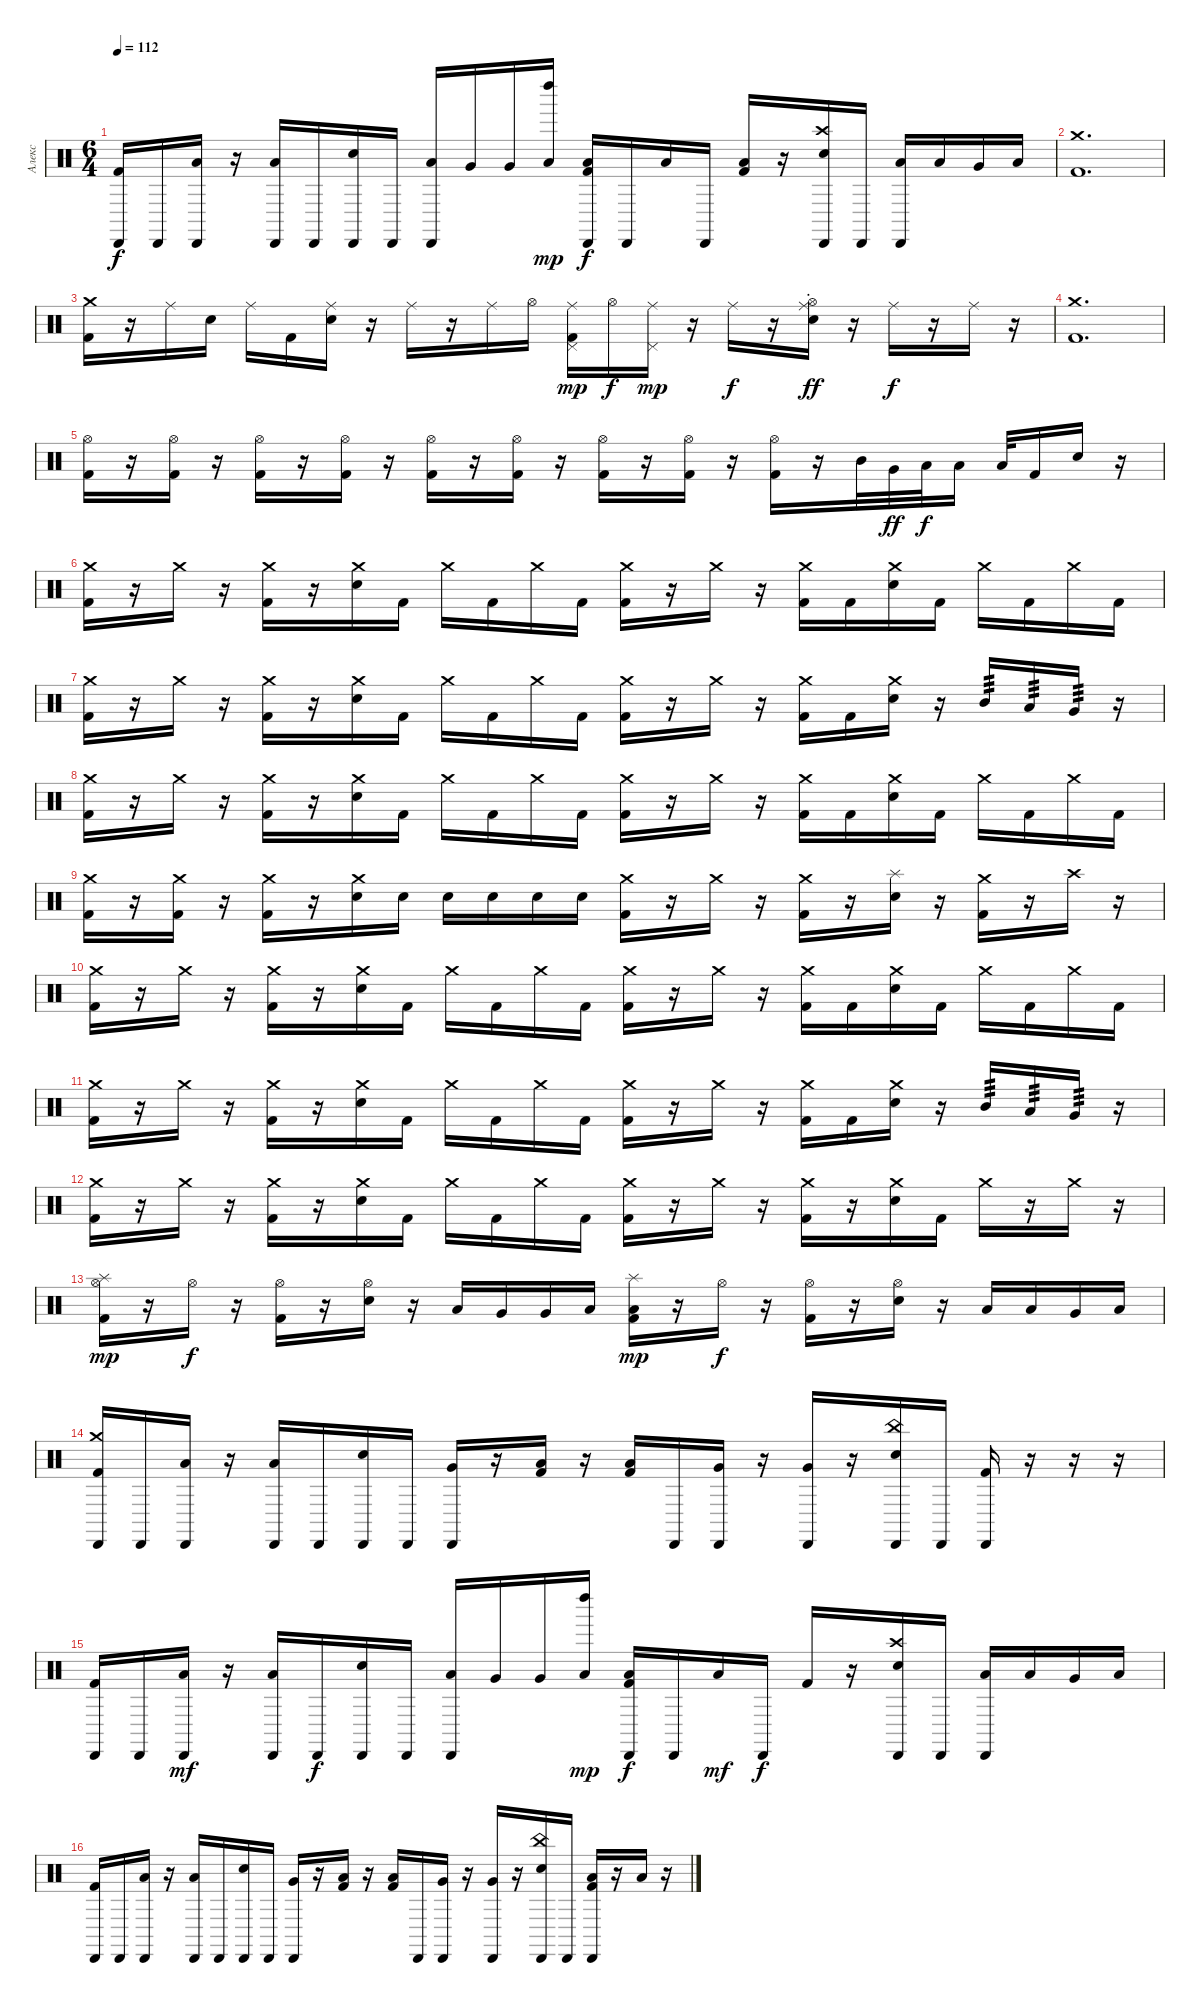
\track ("Алекс" "Алекс") {instrument percussion}
\staff {score}
\articulation defaults
\ts (6 4)
\tempo 112
\clef neutral
\ks c
("Cabasa (hit)" "Kick (hit) 2").16{dy f balance 8} "Cabasa (hit)".16 ("Low Floor Tom (hit)" "Cabasa (hit)").16 r.16 ("Low Floor Tom (hit)" "Cabasa (hit)").16 "Cabasa (hit)".16 ("Electric Snare (hit)" "Cabasa (hit)").16 "Cabasa (hit)".16 ("Low Tom (hit)" "Cabasa (hit)").16{balance 12} "Very Low Tom (hit)".16{balance 8} "Very Low Tom (hit)".16{balance 11} ("Low Floor Tom (hit)" "Left Maraca (hit)").16{dy mp balance 5} ("Low Floor Tom (hit)" "Cabasa (hit)" "Kick (hit) 2").16{dy f balance 5} "Cabasa (hit)".16{balance 8} "Low Floor Tom (hit)".16 "Cabasa (hit)".16 ("Low Floor Tom (hit)" "Kick (hit) 2").16 r.16 ("Crash high (hit)" "Electric Snare (hit)" "Cabasa (hit)").16 "Cabasa (hit)".16{balance 4} ("Low Tom (hit)" "Cabasa (hit)").16{balance 4} "Low Tom (hit)".16{balance 11} "Very Low Tom (hit)".16{balance 4} "Low Floor Tom (hit)".16{balance 5} |
("Crash medium (hit)" "Kick (hit) 2").1{d} |
("Crash medium (hit)" "Kick (hit) 2").16 r.16 "Ride (middle)".16 "Electric Snare (hit)".16 "Ride (middle)".16 "Kick (hit) 2".16 ("Ride (middle)" "Electric Snare (hit)").16 r.16 "Ride (middle)".16 r.16 "Ride (middle)".16 "Hi-Hat (open)".16 ("Ride (middle)" "Pedal Hi-Hat (hit)" "Kick (hit) 2").16{dy mp} "Hi-Hat (open)".16{dy f} ("Ride (middle)" "Pedal Hi-Hat (hit)").16{dy mp} r.16 "Ride (middle)".16{dy f} r.16 ("Ride (middle)" "Electric Snare (hit)" "Hi-Hat (open)"{st}).16{dy ff} r.16 "Ride (middle)".16{dy f} r.16 "Ride (middle)".16 r.16 |
("Crash medium (hit)" "Kick (hit) 2").1{d} |
("Hi-Hat (open)" "Kick (hit) 2").16{volume 1} r.16 ("Hi-Hat (open)" "Kick (hit) 2").16{volume 9} r.16 ("Hi-Hat (open)" "Kick (hit) 2").16 r.16 ("Hi-Hat (open)" "Kick (hit) 2").16 r.16 ("Hi-Hat (open)" "Kick (hit) 2").16 r.16 ("Hi-Hat (open)" "Kick (hit) 2").16 r.16 ("Hi-Hat (open)" "Kick (hit) 2").16 r.16 ("Hi-Hat (open)" "Kick (hit) 2").16 r.16 ("Hi-Hat (open)" "Kick (hit) 2").16 r.16 "Mid Tom (hit)".32 "Very Low Tom (hit)".32{dy ff} "Low Tom (hit)".32{dy f} "Low Floor Tom (hit)".16 "Low Floor Tom (hit)".32 "Kick (hit) 2".16 "Electric Snare (hit)".16 r.16 |
("Crash medium (hit)" "Kick (hit) 2").16 r.16 "Crash medium (hit)".16 r.16 ("Crash medium (hit)" "Kick (hit) 2").16 r.16 ("Crash medium (hit)" "Electric Snare (hit)").16 "Kick (hit) 2".16 "Crash medium (hit)".16 "Kick (hit) 2".16 "Crash medium (hit)".16 "Kick (hit) 2".16 ("Crash medium (hit)" "Kick (hit) 2").16 r.16 "Crash medium (hit)".16 r.16 ("Crash medium (hit)" "Kick (hit) 2").16 "Kick (hit) 2".16 ("Crash medium (hit)" "Electric Snare (hit)").16 "Kick (hit) 2".16 "Crash medium (hit)".16 "Kick (hit) 2".16 "Crash medium (hit)".16 "Kick (hit) 2".16 |
("Crash medium (hit)" "Kick (hit) 2").16 r.16 "Crash medium (hit)".16 r.16 ("Crash medium (hit)" "Kick (hit) 2").16 r.16 ("Crash medium (hit)" "Electric Snare (hit)").16 "Kick (hit) 2".16 "Crash medium (hit)".16 "Kick (hit) 2".16 "Crash medium (hit)".16 "Kick (hit) 2".16 ("Crash medium (hit)" "Kick (hit) 2").16 r.16 "Crash medium (hit)".16 r.16 ("Crash medium (hit)" "Kick (hit) 2").16 "Kick (hit) 2".16 ("Crash medium (hit)" "Electric Snare (hit)").16 r.16 "Mid Tom (hit)".16{tp 3} "Low Tom (hit)".16{tp 3} "Very Low Tom (hit)".16{tp 3} r.16 |
("Crash medium (hit)" "Kick (hit) 2").16 r.16 "Crash medium (hit)".16 r.16 ("Crash medium (hit)" "Kick (hit) 2").16 r.16 ("Crash medium (hit)" "Electric Snare (hit)").16 "Kick (hit) 2".16 "Crash medium (hit)".16 "Kick (hit) 2".16 "Crash medium (hit)".16 "Kick (hit) 2".16 ("Crash medium (hit)" "Kick (hit) 2").16 r.16 "Crash medium (hit)".16 r.16 ("Crash medium (hit)" "Kick (hit) 2").16 "Kick (hit) 2".16 ("Crash medium (hit)" "Electric Snare (hit)").16 "Kick (hit) 2".16 "Crash medium (hit)".16 "Kick (hit) 2".16 "Crash medium (hit)".16 "Kick (hit) 2".16 |
("Crash medium (hit)" "Kick (hit) 2").16 r.16 ("Crash medium (hit)" "Kick (hit) 2").16 r.16 ("Crash medium (hit)" "Kick (hit) 2").16 r.16 ("Crash medium (hit)" "Electric Snare (hit)").16 "Electric Snare (hit)".16 "Electric Snare (hit)".16 "Electric Snare (hit)".16 "Electric Snare (hit)".16 "Electric Snare (hit)".16 ("Crash medium (hit)" "Kick (hit) 2").16 r.16 "Crash medium (hit)".16 r.16 ("Crash medium (hit)" "Kick (hit) 2").16 r.16 ("Splash (hit)" "Electric Snare (hit)").16 r.16 ("Crash medium (hit)" "Kick (hit) 2").16 r.16 "Crash high (hit)".16 r.16 |
("Crash medium (hit)" "Kick (hit) 2").16 r.16 "Crash medium (hit)".16 r.16 ("Crash medium (hit)" "Kick (hit) 2").16 r.16 ("Crash medium (hit)" "Electric Snare (hit)").16 "Kick (hit) 2".16 "Crash medium (hit)".16 "Kick (hit) 2".16 "Crash medium (hit)".16 "Kick (hit) 2".16 ("Crash medium (hit)" "Kick (hit) 2").16 r.16 "Crash medium (hit)".16 r.16 ("Crash medium (hit)" "Kick (hit) 2").16 "Kick (hit) 2".16 ("Crash medium (hit)" "Electric Snare (hit)").16 "Kick (hit) 2".16 "Crash medium (hit)".16 "Kick (hit) 2".16 "Crash medium (hit)".16 "Kick (hit) 2".16 |
("Crash medium (hit)" "Kick (hit) 2").16 r.16 "Crash medium (hit)".16 r.16 ("Crash medium (hit)" "Kick (hit) 2").16 r.16 ("Crash medium (hit)" "Electric Snare (hit)").16 "Kick (hit) 2".16 "Crash medium (hit)".16 "Kick (hit) 2".16 "Crash medium (hit)".16 "Kick (hit) 2".16 ("Crash medium (hit)" "Kick (hit) 2").16 r.16 "Crash medium (hit)".16 r.16 ("Crash medium (hit)" "Kick (hit) 2").16 "Kick (hit) 2".16 ("Crash medium (hit)" "Electric Snare (hit)").16 r.16 "Mid Tom (hit)".16{tp 3} "Low Tom (hit)".16{tp 3} "Very Low Tom (hit)".16{tp 3} r.16 |
("Crash medium (hit)" "Kick (hit) 2").16 r.16 "Crash medium (hit)".16 r.16 ("Crash medium (hit)" "Kick (hit) 2").16 r.16 ("Crash medium (hit)" "Electric Snare (hit)").16 "Kick (hit) 2".16 "Crash medium (hit)".16 "Kick (hit) 2".16 "Crash medium (hit)".16 "Kick (hit) 2".16 ("Crash medium (hit)" "Kick (hit) 2").16 r.16 "Crash medium (hit)".16 r.16 ("Crash medium (hit)" "Kick (hit) 2").16 r.16 ("Crash medium (hit)" "Electric Snare (hit)").16 "Kick (hit) 2".16 "Crash medium (hit)".16 r.16 "Crash medium (hit)".16 r.16 |
("Hi-Hat (open)" "Splash (hit)" "Kick (hit) 2").16{dy mp balance 8} r.16 "Hi-Hat (open)".16{dy f} r.16 ("Hi-Hat (open)" "Kick (hit) 2").16 r.16 ("Hi-Hat (open)" "Electric Snare (hit)").16 r.16 "Low Tom (hit)".16{balance 12} "Very Low Tom (hit)".16{balance 8} "Very Low Tom (hit)".16{balance 11} "Low Floor Tom (hit)".16{balance 5} ("Splash (hit)" "Low Floor Tom (hit)" "Kick (hit) 2").16{dy mp balance 5} r.16{balance 8} "Hi-Hat (open)".16{dy f} r.16 ("Hi-Hat (open)" "Kick (hit) 2").16 r.16 ("Hi-Hat (open)" "Electric Snare (hit)").16 r.16{balance 4} "Low Tom (hit)".16{balance 4} "Low Tom (hit)".16{balance 11} "Very Low Tom (hit)".16{balance 4} "Low Floor Tom (hit)".16{balance 5} |
("Crash medium (hit)" "Cabasa (hit)" "Kick (hit) 2").16{balance 8} "Cabasa (hit)".16 ("Low Floor Tom (hit)" "Cabasa (hit)").16{balance 5} r.16 ("Low Floor Tom (hit)" "Cabasa (hit)").16{balance 5} "Cabasa (hit)".16 ("Electric Snare (hit)" "Cabasa (hit)").16 "Cabasa (hit)".16 ("Very Low Tom (hit)" "Cabasa (hit)").16{balance 11} r.16 ("Low Floor Tom (hit)" "Kick (hit) 2").16{balance 5} r.16 ("Low Floor Tom (hit)" "Kick (hit) 2").16{balance 5} "Cabasa (hit)".16 ("Very Low Tom (hit)" "Cabasa (hit)").16{balance 9} r.16 ("Very Low Tom (hit)" "Cabasa (hit)").16{balance 9} r.16 ("China (hit)" "Electric Snare (hit)" "Cabasa (hit)").16 "Cabasa (hit)".16 ("Cabasa (hit)" "Kick (hit) 2").16 r.16 r.16 r.16 |
("Cabasa (hit)" "Kick (hit) 2").16{balance 8} "Cabasa (hit)".16 ("Low Floor Tom (hit)" "Cabasa (hit)").16{dy mf} r.16 ("Low Floor Tom (hit)" "Cabasa (hit)").16 "Cabasa (hit)".16{dy f} ("Electric Snare (hit)" "Cabasa (hit)").16 "Cabasa (hit)".16 ("Low Tom (hit)" "Cabasa (hit)").16{balance 12} "Very Low Tom (hit)".16{balance 8} "Very Low Tom (hit)".16{balance 11} ("Low Floor Tom (hit)" "Left Maraca (hit)").16{dy mp balance 5} ("Low Floor Tom (hit)" "Cabasa (hit)" "Kick (hit) 2").16{dy f balance 5} "Cabasa (hit)".16{balance 8} "Low Floor Tom (hit)".16{dy mf balance 8} "Cabasa (hit)".16{dy f} "Kick (hit) 2".16 r.16 ("Crash high (hit)" "Electric Snare (hit)" "Cabasa (hit)").16 "Cabasa (hit)".16{balance 4} ("Low Tom (hit)" "Cabasa (hit)").16{balance 4} "Low Tom (hit)".16{balance 11} "Very Low Tom (hit)".16{balance 4} "Low Floor Tom (hit)".16{balance 5} |
("Cabasa (hit)" "Kick (hit) 2").16{balance 8} "Cabasa (hit)".16 ("Low Floor Tom (hit)" "Cabasa (hit)").16{balance 5} r.16 ("Low Floor Tom (hit)" "Cabasa (hit)").16{balance 5} "Cabasa (hit)".16 ("Electric Snare (hit)" "Cabasa (hit)").16 "Cabasa (hit)".16 ("Very Low Tom (hit)" "Cabasa (hit)").16{balance 11} r.16 ("Low Floor Tom (hit)" "Kick (hit) 2").16{balance 5} r.16 ("Low Floor Tom (hit)" "Kick (hit) 2").16{balance 5} "Cabasa (hit)".16 ("Very Low Tom (hit)" "Cabasa (hit)").16{balance 9} r.16 ("Very Low Tom (hit)" "Cabasa (hit)").16{balance 9} r.16 ("China (hit)" "Electric Snare (hit)" "Cabasa (hit)").16 "Cabasa (hit)".16 ("Low Floor Tom (hit)" "Cabasa (hit)" "Kick (hit) 2").16 r.16 "Low Floor Tom (hit)".16 r.16
